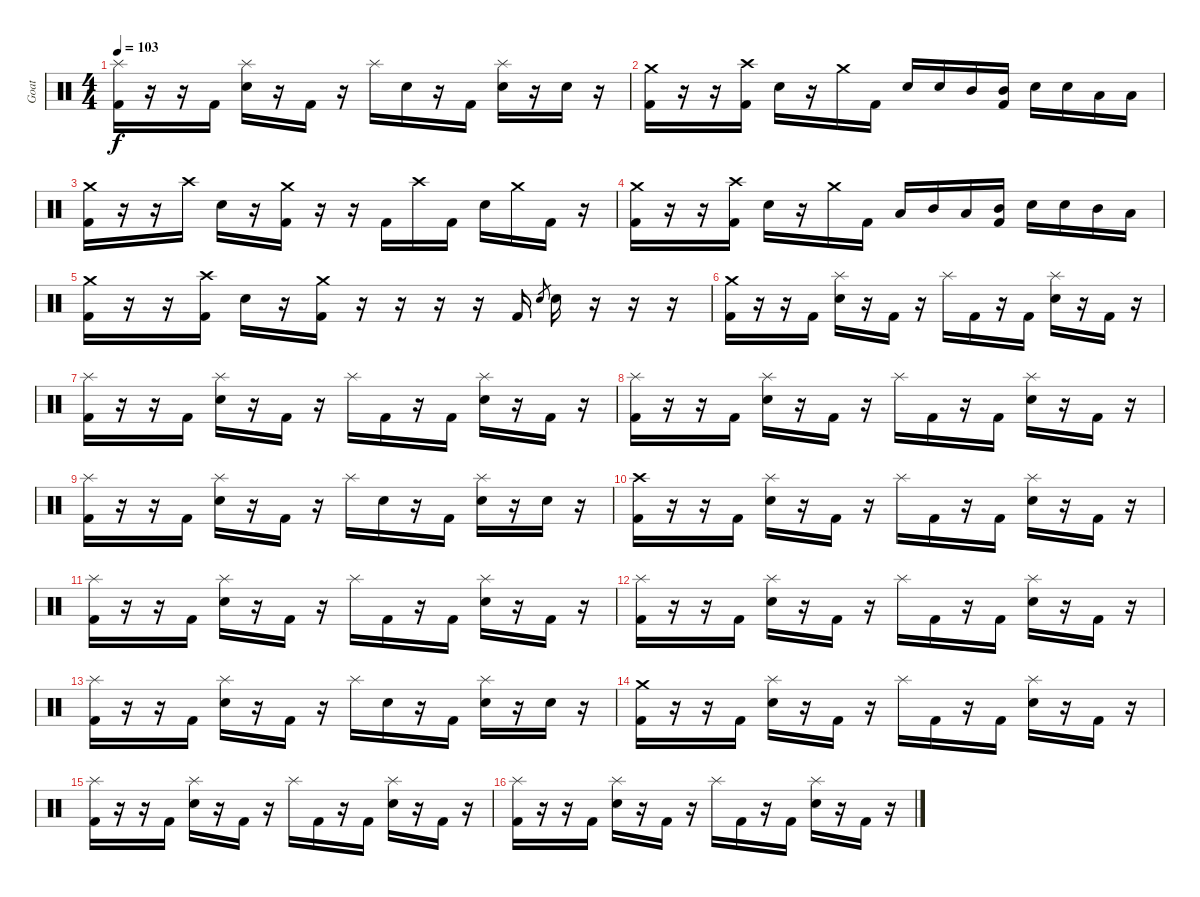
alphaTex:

\track ("Goat" "Goat") {instrument percussion}
\staff {score}
\articulation defaults
\ts (4 4)
\tempo 103
\clef neutral
\ks c
("Splash (hit)" "Kick (hit) 2").16{dy f} r.16 r.16 "Kick (hit) 2".16 ("Splash (hit)" "Electric Snare (hit)").16 r.16 "Kick (hit) 2".16 r.16 "Splash (hit)".16 "Electric Snare (hit)".16 r.16 "Kick (hit) 2".16 ("Splash (hit)" "Electric Snare (hit)").16 r.16 "Electric Snare (hit)".16 r.16 |
("Crash medium (hit)" "Kick (hit) 2").16 r.16 r.16 ("Crash high (hit)" "Kick (hit) 2").16 "Electric Snare (hit)".16 r.16 "Crash medium (hit)".16 "Kick (hit) 2".16 "Electric Snare (hit)".16 "Electric Snare (hit)".16 "Mid Tom (hit)".16 ("Mid Tom (hit)" "Kick (hit) 2").16 "Electric Snare (hit)".16 "Electric Snare (hit)".16 "Low Tom (hit)".16 "Low Tom (hit)".16 |
("Crash medium (hit)" "Kick (hit) 2").16 r.16 r.16 "Crash high (hit)".16 "Electric Snare (hit)".16 r.16 ("Crash medium (hit)" "Kick (hit) 2").16 r.16 r.16 "Kick (hit) 2".16 "Crash high (hit)".16 "Kick (hit) 2".16 "Electric Snare (hit)".16 "Crash medium (hit)".16 "Kick (hit) 2".16 r.16 |
("Crash medium (hit)" "Kick (hit) 2").16 r.16 r.16 ("Crash high (hit)" "Kick (hit) 2").16 "Electric Snare (hit)".16 r.16 "Crash medium (hit)".16 "Kick (hit) 2".16 "Low Tom (hit)".16 "Mid Tom (hit)".16 "Low Tom (hit)".16 ("Mid Tom (hit)" "Kick (hit) 2").16 "Electric Snare (hit)".16 "Electric Snare (hit)".16 "Mid Tom (hit)".16 "Low Tom (hit)".16 |
("Crash medium (hit)" "Kick (hit) 2").16 r.16 r.16 ("Crash high (hit)" "Kick (hit) 2").16 "Electric Snare (hit)".16 r.16 ("Crash medium (hit)" "Kick (hit) 2").16 r.16 r.16 r.16 r.16 "Kick (hit) 2".16 "Electric Snare (hit)".8{gr} "Electric Snare (hit)".16 r.16 r.16 r.16 |
("Crash medium (hit)" "Kick (hit) 2").16 r.16 r.16 "Kick (hit) 2".16 ("Splash (hit)" "Electric Snare (hit)").16 r.16 "Kick (hit) 2".16 r.16 "Splash (hit)".16 "Kick (hit) 2".16 r.16 "Kick (hit) 2".16 ("Splash (hit)" "Electric Snare (hit)").16 r.16 "Kick (hit) 2".16 r.16 |
("Splash (hit)" "Kick (hit) 2").16 r.16 r.16 "Kick (hit) 2".16 ("Splash (hit)" "Electric Snare (hit)").16 r.16 "Kick (hit) 2".16 r.16 "Splash (hit)".16 "Kick (hit) 2".16 r.16 "Kick (hit) 2".16 ("Splash (hit)" "Electric Snare (hit)").16 r.16 "Kick (hit) 2".16 r.16 |
("Splash (hit)" "Kick (hit) 2").16 r.16 r.16 "Kick (hit) 2".16 ("Splash (hit)" "Electric Snare (hit)").16 r.16 "Kick (hit) 2".16 r.16 "Splash (hit)".16 "Kick (hit) 2".16 r.16 "Kick (hit) 2".16 ("Splash (hit)" "Electric Snare (hit)").16 r.16 "Kick (hit) 2".16 r.16 |
("Splash (hit)" "Kick (hit) 2").16 r.16 r.16 "Kick (hit) 2".16 ("Splash (hit)" "Electric Snare (hit)").16 r.16 "Kick (hit) 2".16 r.16 "Splash (hit)".16 "Electric Snare (hit)".16 r.16 "Kick (hit) 2".16 ("Splash (hit)" "Electric Snare (hit)").16 r.16 "Electric Snare (hit)".16 r.16 |
("Crash high (hit)" "Kick (hit) 2").16 r.16 r.16 "Kick (hit) 2".16 ("Splash (hit)" "Electric Snare (hit)").16 r.16 "Kick (hit) 2".16 r.16 "Splash (hit)".16 "Kick (hit) 2".16 r.16 "Kick (hit) 2".16 ("Splash (hit)" "Electric Snare (hit)").16 r.16 "Kick (hit) 2".16 r.16 |
("Splash (hit)" "Kick (hit) 2").16 r.16 r.16 "Kick (hit) 2".16 ("Splash (hit)" "Electric Snare (hit)").16 r.16 "Kick (hit) 2".16 r.16 "Splash (hit)".16 "Kick (hit) 2".16 r.16 "Kick (hit) 2".16 ("Splash (hit)" "Electric Snare (hit)").16 r.16 "Kick (hit) 2".16 r.16 |
("Splash (hit)" "Kick (hit) 2").16 r.16 r.16 "Kick (hit) 2".16 ("Splash (hit)" "Electric Snare (hit)").16 r.16 "Kick (hit) 2".16 r.16 "Splash (hit)".16 "Kick (hit) 2".16 r.16 "Kick (hit) 2".16 ("Splash (hit)" "Electric Snare (hit)").16 r.16 "Kick (hit) 2".16 r.16 |
("Splash (hit)" "Kick (hit) 2").16 r.16 r.16 "Kick (hit) 2".16 ("Splash (hit)" "Electric Snare (hit)").16 r.16 "Kick (hit) 2".16 r.16 "Splash (hit)".16 "Electric Snare (hit)".16 r.16 "Kick (hit) 2".16 ("Splash (hit)" "Electric Snare (hit)").16 r.16 "Electric Snare (hit)".16 r.16 |
("Crash medium (hit)" "Kick (hit) 2").16 r.16 r.16 "Kick (hit) 2".16 ("Splash (hit)" "Electric Snare (hit)").16 r.16 "Kick (hit) 2".16 r.16 "Splash (hit)".16 "Kick (hit) 2".16 r.16 "Kick (hit) 2".16 ("Splash (hit)" "Electric Snare (hit)").16 r.16 "Kick (hit) 2".16 r.16 |
("Splash (hit)" "Kick (hit) 2").16 r.16 r.16 "Kick (hit) 2".16 ("Splash (hit)" "Electric Snare (hit)").16 r.16 "Kick (hit) 2".16 r.16 "Splash (hit)".16 "Kick (hit) 2".16 r.16 "Kick (hit) 2".16 ("Splash (hit)" "Electric Snare (hit)").16 r.16 "Kick (hit) 2".16 r.16 |
("Splash (hit)" "Kick (hit) 2").16 r.16 r.16 "Kick (hit) 2".16 ("Splash (hit)" "Electric Snare (hit)").16 r.16 "Kick (hit) 2".16 r.16 "Splash (hit)".16 "Kick (hit) 2".16 r.16 "Kick (hit) 2".16 ("Splash (hit)" "Electric Snare (hit)").16 r.16 "Kick (hit) 2".16 r.16
